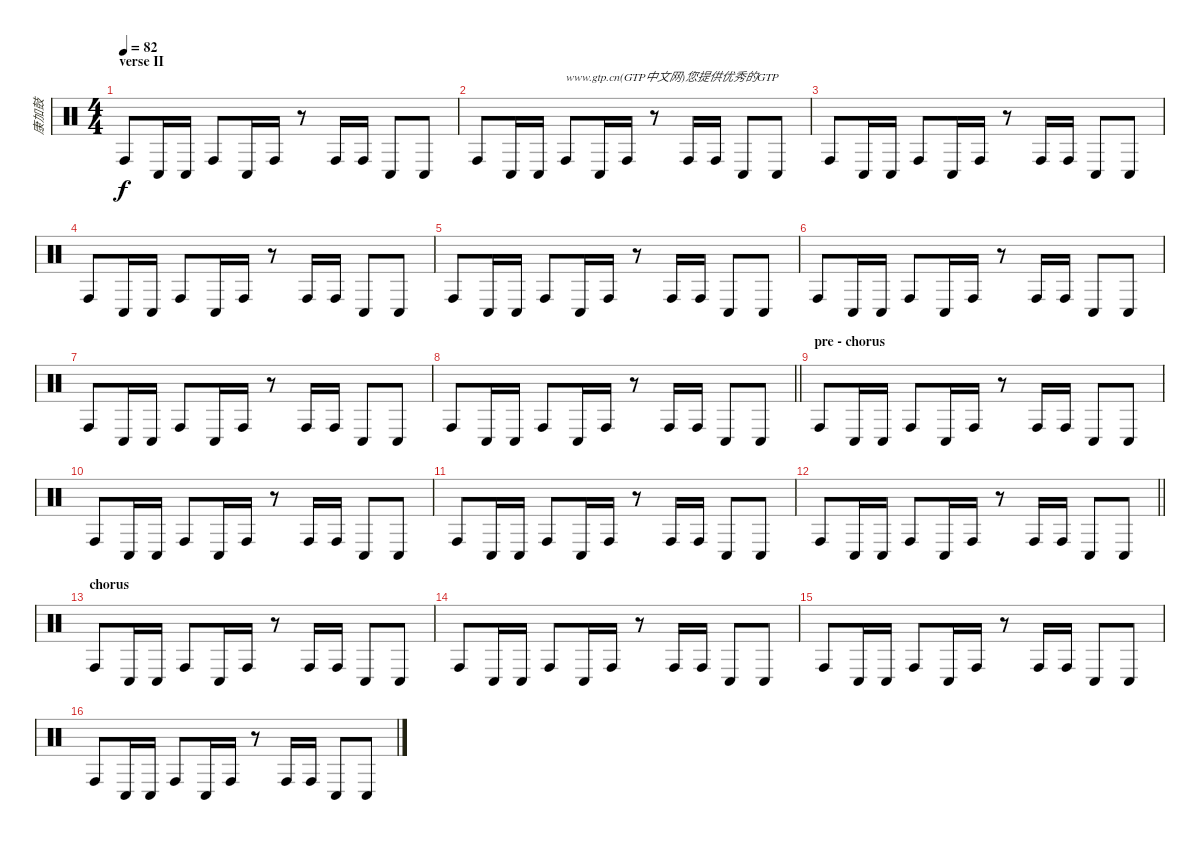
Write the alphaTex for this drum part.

\track ("康加鼓" "康加鼓") {instrument percussion}
\staff {score}
\articulation defaults
\ts (4 4)
\section ("" "verse II")
\tempo 82
\clef neutral
\ks c "Conga high (hit)".8{dy f} "Conga low (hit)".16 "Conga low (hit)".16 "Conga high (hit)".8 "Conga low (hit)".16 "Conga high (hit)".16
r.8 "Conga high (hit)".16 "Conga high (hit)".16 "Conga low (hit)".8 "Conga low (hit)".8 |
"Conga high (hit)".8 "Conga low (hit)".16 "Conga low (hit)".16 "Conga high (hit)".8{txt "www.gtp.cn(GTP中文网)您提供优秀的GTP"} "Conga low (hit)".16 "Conga high (hit)".16 r.8 "Conga high (hit)".16 "Conga high (hit)".16 "Conga low (hit)".8 "Conga low (hit)".8 |
"Conga high (hit)".8 "Conga low (hit)".16 "Conga low (hit)".16 "Conga high (hit)".8 "Conga low (hit)".16 "Conga high (hit)".16 r.8 "Conga high (hit)".16 "Conga high (hit)".16 "Conga low (hit)".8 "Conga low (hit)".8 |
"Conga high (hit)".8 "Conga low (hit)".16 "Conga low (hit)".16 "Conga high (hit)".8 "Conga low (hit)".16 "Conga high (hit)".16 r.8 "Conga high (hit)".16 "Conga high (hit)".16 "Conga low (hit)".8 "Conga low (hit)".8 |
"Conga high (hit)".8 "Conga low (hit)".16 "Conga low (hit)".16 "Conga high (hit)".8 "Conga low (hit)".16 "Conga high (hit)".16 r.8 "Conga high (hit)".16 "Conga high (hit)".16 "Conga low (hit)".8 "Conga low (hit)".8 |
"Conga high (hit)".8 "Conga low (hit)".16 "Conga low (hit)".16 "Conga high (hit)".8 "Conga low (hit)".16 "Conga high (hit)".16 r.8 "Conga high (hit)".16 "Conga high (hit)".16 "Conga low (hit)".8 "Conga low (hit)".8 |
"Conga high (hit)".8 "Conga low (hit)".16 "Conga low (hit)".16 "Conga high (hit)".8 "Conga low (hit)".16 "Conga high (hit)".16 r.8 "Conga high (hit)".16 "Conga high (hit)".16 "Conga low (hit)".8 "Conga low (hit)".8 |
\barLineRight lightlight "Conga high (hit)".8 "Conga low (hit)".16 "Conga low (hit)".16 "Conga high (hit)".8 "Conga low (hit)".16 "Conga high (hit)".16
r.8 "Conga high (hit)".16 "Conga high (hit)".16 "Conga low (hit)".8 "Conga low (hit)".8 |
\section ("" "pre - chorus")
"Conga high (hit)".8 "Conga low (hit)".16 "Conga low (hit)".16 "Conga high (hit)".8 "Conga low (hit)".16 "Conga high (hit)".16 r.8 "Conga high (hit)".16 "Conga high (hit)".16 "Conga low (hit)".8 "Conga low (hit)".8 |
"Conga high (hit)".8 "Conga low (hit)".16 "Conga low (hit)".16 "Conga high (hit)".8 "Conga low (hit)".16 "Conga high (hit)".16 r.8 "Conga high (hit)".16 "Conga high (hit)".16 "Conga low (hit)".8 "Conga low (hit)".8 |
"Conga high (hit)".8 "Conga low (hit)".16 "Conga low (hit)".16 "Conga high (hit)".8 "Conga low (hit)".16 "Conga high (hit)".16 r.8 "Conga high (hit)".16 "Conga high (hit)".16 "Conga low (hit)".8 "Conga low (hit)".8 |
\barLineRight lightlight "Conga high (hit)".8 "Conga low (hit)".16 "Conga low (hit)".16 "Conga high (hit)".8 "Conga low (hit)".16 "Conga high (hit)".16
r.8 "Conga high (hit)".16 "Conga high (hit)".16 "Conga low (hit)".8 "Conga low (hit)".8 |
\section ("" "chorus")
"Conga high (hit)".8 "Conga low (hit)".16 "Conga low (hit)".16 "Conga high (hit)".8 "Conga low (hit)".16 "Conga high (hit)".16 r.8 "Conga high (hit)".16 "Conga high (hit)".16 "Conga low (hit)".8 "Conga low (hit)".8 |
"Conga high (hit)".8 "Conga low (hit)".16 "Conga low (hit)".16 "Conga high (hit)".8 "Conga low (hit)".16 "Conga high (hit)".16 r.8 "Conga high (hit)".16 "Conga high (hit)".16 "Conga low (hit)".8 "Conga low (hit)".8 |
"Conga high (hit)".8 "Conga low (hit)".16 "Conga low (hit)".16 "Conga high (hit)".8 "Conga low (hit)".16 "Conga high (hit)".16 r.8 "Conga high (hit)".16 "Conga high (hit)".16 "Conga low (hit)".8 "Conga low (hit)".8 |
"Conga high (hit)".8 "Conga low (hit)".16 "Conga low (hit)".16 "Conga high (hit)".8 "Conga low (hit)".16 "Conga high (hit)".16 r.8 "Conga high (hit)".16 "Conga high (hit)".16 "Conga low (hit)".8 "Conga low (hit)".8
